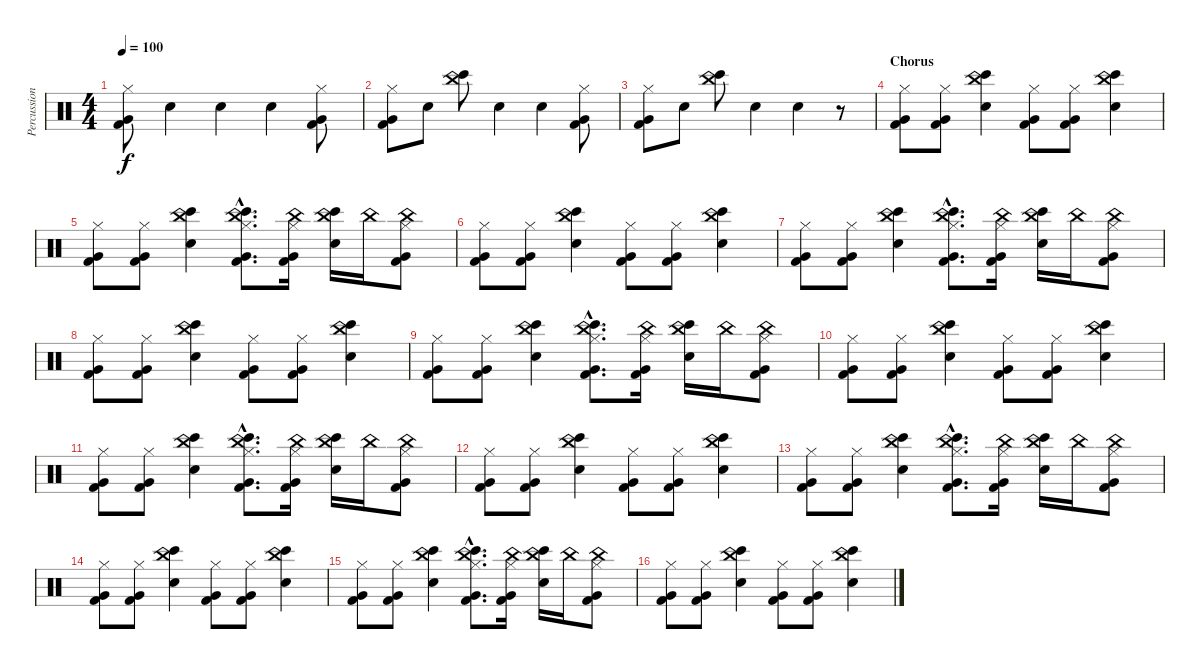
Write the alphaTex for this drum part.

\track ("Percussion" "Percussion") {instrument percussion}
\staff {score}
\articulation defaults
\ts (4 4)
\tempo 100
\clef neutral
\ks c
("Hi-Hat (closed)" "Very Low Tom (hit)" "Kick (hit) 2").8{dy f} "Hand Clap (hit)".4 "Hand Clap (hit)".4 "Hand Clap (hit)".4 ("Very Low Tom (hit)" "Kick (hit) 2" "Hi-Hat (closed)").8 |
("Hi-Hat (closed)" "Very Low Tom (hit)" "Kick (hit) 2").8 "Hand Clap (hit)".8 ("Bongo High (hit)" "China (hit)").8 "Hand Clap (hit)".4 "Hand Clap (hit)".4 ("Hi-Hat (closed)" "Kick (hit) 2" "Very Low Tom (hit)").8 |
("Hi-Hat (closed)" "Very Low Tom (hit)" "Kick (hit) 2").8 "Hand Clap (hit)".8 ("Bongo High (hit)" "China (hit)").8 "Hand Clap (hit)".4 "Hand Clap (hit)".4 r.8 |
\section ("" "Chorus")
("Hi-Hat (closed)" "Kick (hit) 2" "Very Low Tom (hit)").8 ("Hi-Hat (closed)" "Very Low Tom (hit)" "Kick (hit) 2").8 ("Hand Clap (hit)" "Bongo High (hit)" "China (hit)").4 ("Hi-Hat (closed)" "Kick (hit) 2" "Very Low Tom (hit)").8 ("Hi-Hat (closed)" "Very Low Tom (hit)" "Kick (hit) 2").8 ("Bongo High (hit)" "China (hit)" "Hand Clap (hit)").4 |
("Hi-Hat (closed)" "Kick (hit) 2" "Very Low Tom (hit)").8 ("Hi-Hat (closed)" "Very Low Tom (hit)" "Kick (hit) 2").8 ("Bongo High (hit)" "China (hit)" "Hand Clap (hit)").4 ("China (hit)"{hac} "Bongo High (hit)" "Hi-Hat (closed)"{hac} "Kick (hit) 2"{hac} "Very Low Tom (hit)"{hac}).8{d} ("China (hit)" "Hi-Hat (closed)" "Kick (hit) 2" "Very Low Tom (hit)").16 ("Bongo High (hit)" "China (hit)" "Hand Clap (hit)").16 "China (hit)".16 ("China (hit)" "Hi-Hat (closed)" "Kick (hit) 2" "Very Low Tom (hit)").8 |
("Hi-Hat (closed)" "Kick (hit) 2" "Very Low Tom (hit)").8 ("Hi-Hat (closed)" "Very Low Tom (hit)" "Kick (hit) 2").8 ("Bongo High (hit)" "China (hit)" "Hand Clap (hit)").4 ("Hi-Hat (closed)" "Kick (hit) 2" "Very Low Tom (hit)").8 ("Hi-Hat (closed)" "Very Low Tom (hit)" "Kick (hit) 2").8 ("Hand Clap (hit)" "Bongo High (hit)" "China (hit)").4 |
("Hi-Hat (closed)" "Kick (hit) 2" "Very Low Tom (hit)").8 ("Hi-Hat (closed)" "Very Low Tom (hit)" "Kick (hit) 2").8 ("Bongo High (hit)" "China (hit)" "Hand Clap (hit)").4 ("China (hit)"{hac} "Bongo High (hit)" "Hi-Hat (closed)"{hac} "Kick (hit) 2"{hac} "Very Low Tom (hit)"{hac}).8{d} ("China (hit)" "Hi-Hat (closed)" "Kick (hit) 2" "Very Low Tom (hit)").16 ("Hand Clap (hit)" "Bongo High (hit)" "China (hit)").16 "China (hit)".16 ("China (hit)" "Hi-Hat (closed)" "Kick (hit) 2" "Very Low Tom (hit)").8 |
("Hi-Hat (closed)" "Kick (hit) 2" "Very Low Tom (hit)").8 ("Hi-Hat (closed)" "Very Low Tom (hit)" "Kick (hit) 2").8 ("Hand Clap (hit)" "Bongo High (hit)" "China (hit)").4 ("Hi-Hat (closed)" "Kick (hit) 2" "Very Low Tom (hit)").8 ("Hi-Hat (closed)" "Very Low Tom (hit)" "Kick (hit) 2").8 ("Bongo High (hit)" "China (hit)" "Hand Clap (hit)").4 |
("Hi-Hat (closed)" "Kick (hit) 2" "Very Low Tom (hit)").8 ("Hi-Hat (closed)" "Very Low Tom (hit)" "Kick (hit) 2").8 ("Bongo High (hit)" "China (hit)" "Hand Clap (hit)").4 ("China (hit)"{hac} "Bongo High (hit)" "Hi-Hat (closed)"{hac} "Kick (hit) 2"{hac} "Very Low Tom (hit)"{hac}).8{d} ("China (hit)" "Hi-Hat (closed)" "Kick (hit) 2" "Very Low Tom (hit)").16 ("Hand Clap (hit)" "Bongo High (hit)" "China (hit)").16 "China (hit)".16 ("China (hit)" "Hi-Hat (closed)" "Kick (hit) 2" "Very Low Tom (hit)").8 |
("Hi-Hat (closed)" "Kick (hit) 2" "Very Low Tom (hit)").8 ("Hi-Hat (closed)" "Very Low Tom (hit)" "Kick (hit) 2").8 ("Hand Clap (hit)" "Bongo High (hit)" "China (hit)").4 ("Hi-Hat (closed)" "Kick (hit) 2" "Very Low Tom (hit)").8 ("Hi-Hat (closed)" "Very Low Tom (hit)" "Kick (hit) 2").8 ("Bongo High (hit)" "China (hit)" "Hand Clap (hit)").4 |
("Hi-Hat (closed)" "Kick (hit) 2" "Very Low Tom (hit)").8 ("Hi-Hat (closed)" "Very Low Tom (hit)" "Kick (hit) 2").8 ("Bongo High (hit)" "China (hit)" "Hand Clap (hit)").4 ("China (hit)"{hac} "Bongo High (hit)" "Hi-Hat (closed)"{hac} "Kick (hit) 2"{hac} "Very Low Tom (hit)"{hac}).8{d} ("China (hit)" "Hi-Hat (closed)" "Kick (hit) 2" "Very Low Tom (hit)").16 ("Hand Clap (hit)" "Bongo High (hit)" "China (hit)").16 "China (hit)".16 ("China (hit)" "Hi-Hat (closed)" "Kick (hit) 2" "Very Low Tom (hit)").8 |
("Hi-Hat (closed)" "Kick (hit) 2" "Very Low Tom (hit)").8 ("Hi-Hat (closed)" "Very Low Tom (hit)" "Kick (hit) 2").8 ("Hand Clap (hit)" "Bongo High (hit)" "China (hit)").4 ("Hi-Hat (closed)" "Kick (hit) 2" "Very Low Tom (hit)").8 ("Hi-Hat (closed)" "Very Low Tom (hit)" "Kick (hit) 2").8 ("Bongo High (hit)" "China (hit)" "Hand Clap (hit)").4 |
("Hi-Hat (closed)" "Kick (hit) 2" "Very Low Tom (hit)").8 ("Hi-Hat (closed)" "Very Low Tom (hit)" "Kick (hit) 2").8 ("Bongo High (hit)" "China (hit)" "Hand Clap (hit)").4 ("China (hit)"{hac} "Bongo High (hit)" "Hi-Hat (closed)"{hac} "Kick (hit) 2"{hac} "Very Low Tom (hit)"{hac}).8{d} ("China (hit)" "Hi-Hat (closed)" "Kick (hit) 2" "Very Low Tom (hit)").16 ("Bongo High (hit)" "China (hit)" "Hand Clap (hit)").16 "China (hit)".16 ("China (hit)" "Hi-Hat (closed)" "Kick (hit) 2" "Very Low Tom (hit)").8 |
("Hi-Hat (closed)" "Kick (hit) 2" "Very Low Tom (hit)").8 ("Hi-Hat (closed)" "Very Low Tom (hit)" "Kick (hit) 2").8 ("Bongo High (hit)" "China (hit)" "Hand Clap (hit)").4 ("Hi-Hat (closed)" "Kick (hit) 2" "Very Low Tom (hit)").8 ("Hi-Hat (closed)" "Very Low Tom (hit)" "Kick (hit) 2").8 ("Hand Clap (hit)" "Bongo High (hit)" "China (hit)").4 |
("Hi-Hat (closed)" "Kick (hit) 2" "Very Low Tom (hit)").8 ("Hi-Hat (closed)" "Very Low Tom (hit)" "Kick (hit) 2").8 ("Bongo High (hit)" "China (hit)" "Hand Clap (hit)").4 ("China (hit)"{hac} "Bongo High (hit)" "Hi-Hat (closed)"{hac} "Kick (hit) 2"{hac} "Very Low Tom (hit)"{hac}).8{d} ("China (hit)" "Hi-Hat (closed)" "Kick (hit) 2" "Very Low Tom (hit)").16 ("Bongo High (hit)" "China (hit)" "Hand Clap (hit)").16 "China (hit)".16 ("China (hit)" "Hi-Hat (closed)" "Kick (hit) 2" "Very Low Tom (hit)").8 |
("Hi-Hat (closed)" "Kick (hit) 2" "Very Low Tom (hit)").8 ("Hi-Hat (closed)" "Very Low Tom (hit)" "Kick (hit) 2").8 ("Hand Clap (hit)" "Bongo High (hit)" "China (hit)").4 ("Hi-Hat (closed)" "Kick (hit) 2" "Very Low Tom (hit)").8 ("Hi-Hat (closed)" "Very Low Tom (hit)" "Kick (hit) 2").8 ("Bongo High (hit)" "China (hit)" "Hand Clap (hit)").4
